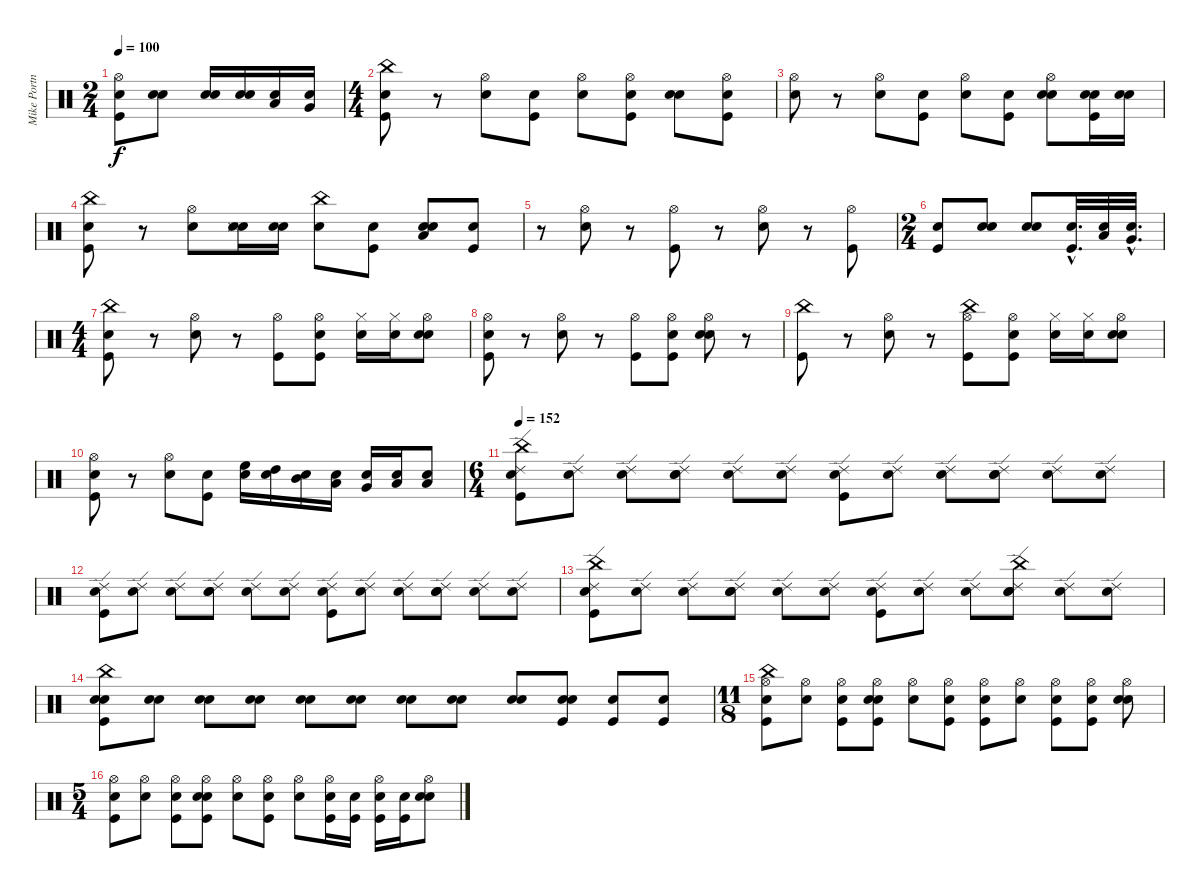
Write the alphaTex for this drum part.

\track ("Mike Portnoy - Drum" "Mike Portn") {instrument percussion}
\staff {score}
\articulation defaults
\ts (2 4)
\tempo 100
\clef neutral
\ks c
("Snare (hit)" "Kick (hit)" "Hi-Hat (open)").8{dy f} ("Snare (hit)" "Snare (hit) 2").8 ("Snare (hit)" "Snare (hit) 2").16 ("Snare (hit)" "Snare (hit) 2").16 ("Snare (hit)" "Low Tom (hit)").16 ("Snare (hit)" "Very Low Tom (hit)").16 |
\ts (4 4)
("Snare (hit)" "Kick (hit)" "China (hit)").8 r.8 ("Snare (hit) 2" "Hi-Hat (open)").8 ("Snare (hit)" "Kick (hit)").8 ("Snare (hit)" "Hi-Hat (open)").8 ("Snare (hit)" "Kick (hit)" "Hi-Hat (open)").8 ("Snare (hit)" "Snare (hit) 2").8 ("Snare (hit)" "Kick (hit)" "Hi-Hat (open)").8 |
("Snare (hit)" "Hi-Hat (open)").8 r.8 ("Snare (hit) 2" "Hi-Hat (open)").8 ("Snare (hit)" "Kick (hit)").8 ("Snare (hit)" "Hi-Hat (open)").8 ("Snare (hit)" "Kick (hit)").8 ("Snare (hit)" "Snare (hit) 2" "Hi-Hat (open)").8 ("Snare (hit)" "Kick (hit)" "Snare (hit) 2").16 ("Snare (hit)" "Snare (hit) 2").16 |
("Snare (hit)" "Kick (hit)" "China (hit)").8 r.8 ("Snare (hit) 2" "Hi-Hat (open)").8 ("Snare (hit)" "Metronome (hit)" "Snare (hit) 2").16 ("Snare (hit)" "Snare (hit) 2").16 ("Snare (hit)" "China (hit)").8 ("Snare (hit)" "Kick (hit)").8 ("Snare (hit)" "Snare (hit) 2" "Low Tom (hit)").8 ("Snare (hit)" "Kick (hit)").8 |
r.8 ("Snare (hit) 2" "Hi-Hat (open)").8 r.8 ("Kick (hit)" "Hi-Hat (open)").8 r.8 ("Snare (hit) 2" "Hi-Hat (open)").8 r.8 ("Kick (hit)" "Hi-Hat (open)").8 |
\ts (2 4)
("Snare (hit)" "Kick (hit)").8 ("Snare (hit)" "Snare (hit) 2").8 ("Snare (hit)" "Snare (hit) 2").8 ("Snare (hit)"{hac} "Kick (hit)"{hac}).32{d} ("Snare (hit)" "Low Tom (hit)").32 ("Snare (hit)"{hac} "Very Low Tom (hit)"{hac}).32{d} |
\ts (4 4)
("Snare (hit)" "Kick (hit)" "China (hit)").8 r.8 ("Snare (hit) 2" "Hi-Hat (open)").8 r.8 ("Kick (hit)" "Hi-Hat (open)").8 ("Snare (hit)" "Kick (hit)" "Hi-Hat (open)").8 ("Snare (hit)" "Hi-Hat (closed)").16 ("Snare (hit)" "Hi-Hat (closed)").16 ("Snare (hit)" "Snare (hit) 2" "Hi-Hat (open)").8 |
("Snare (hit)" "Kick (hit)" "Hi-Hat (open)").8 r.8 ("Snare (hit) 2" "Hi-Hat (open)").8 r.8 ("Kick (hit)" "Hi-Hat (open)").8 ("Snare (hit)" "Kick (hit)" "Hi-Hat (open)").8 ("Snare (hit)" "Snare (hit) 2" "Hi-Hat (open)").8 r.8 |
("Kick (hit)" "China (hit)").8 r.8 ("Snare (hit) 2" "Hi-Hat (open)").8 r.8 ("Kick (hit)" "Hi-Hat (open)" "China (hit)").8 ("Snare (hit)" "Kick (hit)" "Hi-Hat (open)").8 ("Snare (hit)" "Hi-Hat (closed)").16 ("Snare (hit)" "Hi-Hat (closed)").16 ("Snare (hit)" "Snare (hit) 2" "Hi-Hat (open)").8 |
("Snare (hit)" "Kick (hit)" "Hi-Hat (open)").8 r.8 ("Snare (hit) 2" "Hi-Hat (open)").8 ("Snare (hit)" "Kick (hit)").8 ("Snare (hit)" "High Floor Tom (hit)").16 ("Snare (hit)" "High Tom (hit)").16 ("Snare (hit)" "Mid Tom (hit)").16 ("Snare (hit)" "Low Tom (hit)").16 ("Snare (hit)" "Very Low Tom (hit)").16 ("Snare (hit)" "Low Tom (hit)").16 ("Snare (hit)" "Low Floor Tom (hit)").8 |
\ts (6 4)
\tempo 152
("Snare (hit)" "Kick (hit)" "China (hit)" "Ride (edge) 2").8 ("Snare (hit)" "Ride (edge) 2").8 ("Snare (hit)" "Ride (edge) 2").8 ("Snare (hit)" "Snare (hit) 2" "Ride (edge) 2").8 ("Snare (hit)" "Ride (edge) 2").8 ("Snare (hit)" "Ride (edge) 2").8 ("Snare (hit)" "Kick (hit)" "Ride (edge) 2").8 ("Snare (hit)" "Ride (edge) 2").8 ("Snare (hit)" "Ride (edge) 2").8 ("Snare (hit)" "Snare (hit) 2" "Ride (edge) 2").8 ("Snare (hit)" "Ride (edge) 2").8 ("Snare (hit)" "Ride (edge) 2").8 |
("Snare (hit)" "Kick (hit)" "Ride (edge) 2").8 ("Snare (hit)" "Ride (edge) 2").8 ("Snare (hit)" "Ride (edge) 2").8 ("Snare (hit)" "Snare (hit) 2" "Ride (edge) 2").8 ("Snare (hit)" "Ride (edge) 2").8 ("Snare (hit)" "Ride (edge) 2").8 ("Snare (hit)" "Kick (hit)" "Ride (edge) 2").8 ("Snare (hit)" "Ride (edge) 2").8 ("Snare (hit)" "Ride (edge) 2").8 ("Snare (hit)" "Snare (hit) 2" "Ride (edge) 2").8 ("Snare (hit)" "Ride (edge) 2").8 ("Snare (hit)" "Ride (edge) 2").8 |
("Snare (hit)" "Kick (hit)" "China (hit)" "Ride (edge) 2").8 ("Snare (hit)" "Ride (edge) 2").8 ("Snare (hit)" "Ride (edge) 2").8 ("Snare (hit)" "Snare (hit) 2" "Ride (edge) 2").8 ("Snare (hit)" "Ride (edge) 2").8 ("Snare (hit)" "Ride (edge) 2").8 ("Snare (hit)" "Kick (hit)" "Ride (edge) 2").8 ("Snare (hit)" "Ride (edge) 2").8 ("Snare (hit)" "Ride (edge) 2").8 ("Snare (hit)" "Snare (hit) 2" "China (hit)" "Ride (edge) 2").8 ("Snare (hit)" "Ride (edge) 2").8 ("Snare (hit)" "Ride (edge) 2").8 |
("Snare (hit)" "Kick (hit)" "Snare (hit) 2" "China (hit)").8 ("Snare (hit)" "Snare (hit) 2").8 ("Snare (hit)" "Snare (hit) 2").8 ("Snare (hit)" "Snare (hit) 2").8 ("Snare (hit)" "Snare (hit) 2").8 ("Snare (hit)" "Snare (hit) 2").8 ("Snare (hit)" "Snare (hit) 2").8 ("Snare (hit)" "Snare (hit) 2").8 ("Snare (hit)" "Snare (hit) 2").8 ("Snare (hit)" "Kick (hit)" "Snare (hit) 2").8 ("Snare (hit)" "Kick (hit)").8 ("Snare (hit)" "Kick (hit)").8 |
\ts (11 8)
("Snare (hit)" "Kick (hit)" "Hi-Hat (open)" "China (hit)").8 ("Snare (hit)" "Hi-Hat (open)").8 ("Snare (hit)" "Kick (hit)" "Hi-Hat (open)").8 ("Snare (hit)" "Kick (hit)" "Snare (hit) 2" "Hi-Hat (open)").8 ("Snare (hit)" "Hi-Hat (open)").8 ("Snare (hit)" "Kick (hit)" "Hi-Hat (open)").8 ("Snare (hit)" "Kick (hit)" "Hi-Hat (open)").8 ("Snare (hit)" "Hi-Hat (open)").8 ("Snare (hit)" "Kick (hit)" "Hi-Hat (open)").8 ("Snare (hit)" "Kick (hit)" "Hi-Hat (open)").8 ("Snare (hit)" "Snare (hit) 2" "Hi-Hat (open)").8 |
\ts (5 4)
("Snare (hit)" "Kick (hit)" "Hi-Hat (open)").8 ("Snare (hit)" "Hi-Hat (open)").8 ("Snare (hit)" "Kick (hit)" "Hi-Hat (open)").8 ("Snare (hit)" "Kick (hit)" "Snare (hit) 2" "Hi-Hat (open)").8 ("Snare (hit)" "Hi-Hat (open)").8 ("Snare (hit)" "Kick (hit)" "Hi-Hat (open)").8 ("Snare (hit)" "Hi-Hat (open)").8 ("Snare (hit)" "Kick (hit)" "Hi-Hat (open)").16 ("Snare (hit)" "Kick (hit)").16 ("Snare (hit)" "Kick (hit)" "Hi-Hat (open)").16 ("Snare (hit)" "Kick (hit)").16 ("Snare (hit)" "Snare (hit) 2" "Hi-Hat (open)").8
